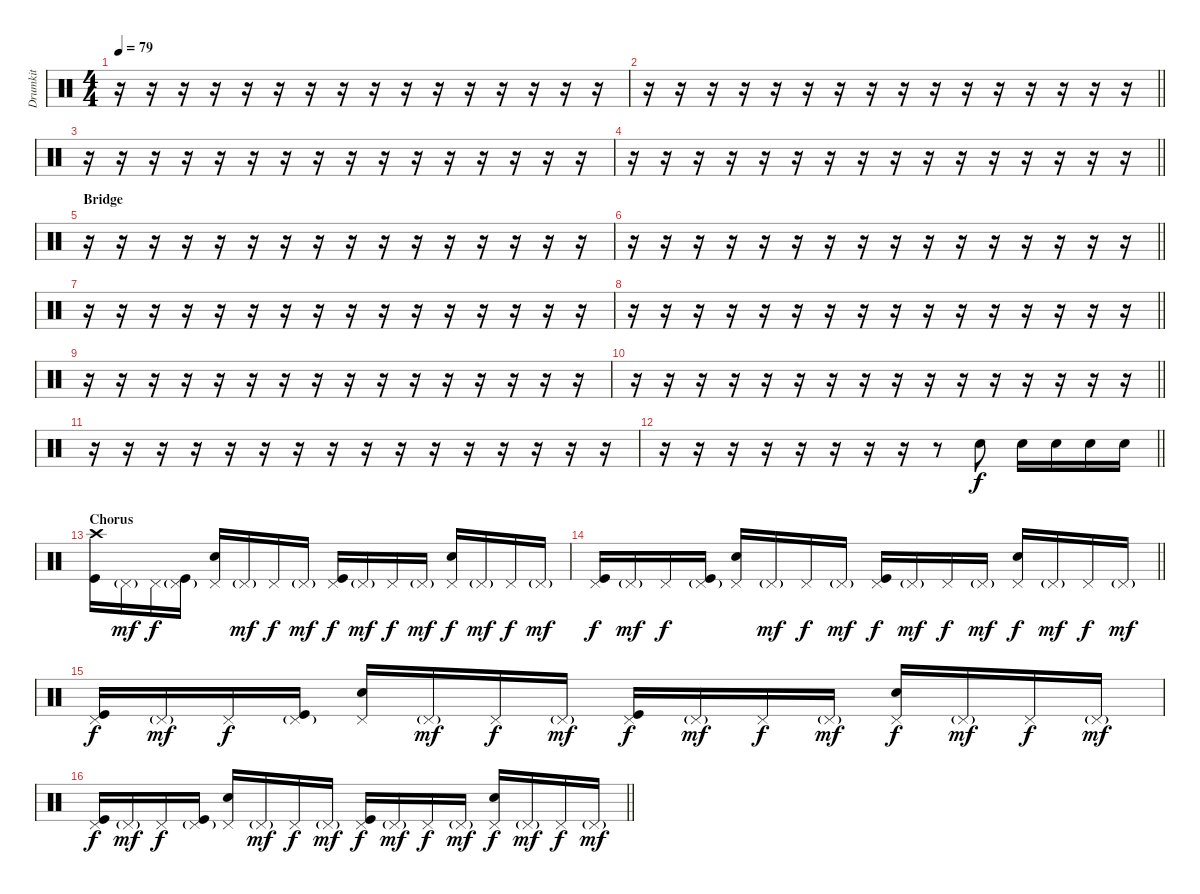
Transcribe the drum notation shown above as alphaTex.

\track ("Drumkit" "Drumkit") {instrument percussion}
\staff {score}
\articulation defaults
\ts (4 4)
\tempo 79
\clef neutral
\ks c
r.16{dy mf} r.16 r.16 r.16 r.16 r.16 r.16 r.16 r.16 r.16 r.16 r.16 r.16 r.16 r.16 r.16 |
\barLineRight lightlight
r.16 r.16 r.16 r.16 r.16 r.16 r.16 r.16 r.16 r.16 r.16 r.16 r.16 r.16 r.16 r.16 |
r.16 r.16 r.16 r.16 r.16 r.16 r.16 r.16 r.16 r.16 r.16 r.16 r.16 r.16 r.16 r.16 |
\barLineRight lightlight
r.16 r.16 r.16 r.16 r.16 r.16 r.16 r.16 r.16 r.16 r.16 r.16 r.16 r.16 r.16 r.16 |
\section ("" "Bridge")
r.16 r.16 r.16 r.16 r.16 r.16 r.16 r.16 r.16 r.16 r.16 r.16 r.16 r.16 r.16 r.16 |
\barLineRight lightlight
r.16 r.16 r.16 r.16 r.16 r.16 r.16 r.16 r.16 r.16 r.16 r.16 r.16 r.16 r.16 r.16 |
r.16 r.16 r.16 r.16 r.16 r.16 r.16 r.16 r.16 r.16 r.16 r.16 r.16 r.16 r.16 r.16 |
\barLineRight lightlight
r.16 r.16 r.16 r.16 r.16 r.16 r.16 r.16 r.16 r.16 r.16 r.16 r.16 r.16 r.16 r.16 |
r.16 r.16 r.16 r.16 r.16 r.16 r.16 r.16 r.16 r.16 r.16 r.16 r.16 r.16 r.16 r.16 |
\barLineRight lightlight
r.16 r.16 r.16 r.16 r.16 r.16 r.16 r.16 r.16 r.16 r.16 r.16 r.16 r.16 r.16 r.16 |
r.16 r.16 r.16 r.16 r.16 r.16 r.16 r.16 r.16 r.16 r.16 r.16 r.16 r.16 r.16 r.16 |
\barLineRight lightlight
r.16 r.16 r.16 r.16 r.16 r.16 r.16 r.16 r.8 "Snare (hit) 2".8{dy f} "Snare (hit) 2".16 "Snare (hit) 2".16 "Snare (hit) 2".16 "Snare (hit) 2".16 |
\section ("" "Chorus")
("Crash high (hit)" "Kick (hit)").16 "Pedal Hi-Hat (hit)"{g}.16{dy mf} "Pedal Hi-Hat (hit)".16{dy f} ("Pedal Hi-Hat (hit)"{g} "Kick (hit)").16 ("Pedal Hi-Hat (hit)" "Snare (hit) 2").16 "Pedal Hi-Hat (hit)"{g}.16{dy mf} "Pedal Hi-Hat (hit)".16{dy f} "Pedal Hi-Hat (hit)"{g}.16{dy mf} ("Pedal Hi-Hat (hit)" "Kick (hit)").16{dy f} "Pedal Hi-Hat (hit)"{g}.16{dy mf} "Pedal Hi-Hat (hit)".16{dy f} "Pedal Hi-Hat (hit)"{g}.16{dy mf} ("Pedal Hi-Hat (hit)" "Snare (hit) 2").16{dy f} "Pedal Hi-Hat (hit)"{g}.16{dy mf} "Pedal Hi-Hat (hit)".16{dy f} "Pedal Hi-Hat (hit)"{g}.16{dy mf} |
\barLineRight lightlight
("Pedal Hi-Hat (hit)" "Kick (hit)").16{dy f} "Pedal Hi-Hat (hit)"{g}.16{dy mf} "Pedal Hi-Hat (hit)".16{dy f} ("Pedal Hi-Hat (hit)"{g} "Kick (hit)").16 ("Pedal Hi-Hat (hit)" "Snare (hit) 2").16 "Pedal Hi-Hat (hit)"{g}.16{dy mf} "Pedal Hi-Hat (hit)".16{dy f} "Pedal Hi-Hat (hit)"{g}.16{dy mf} ("Pedal Hi-Hat (hit)" "Kick (hit)").16{dy f} "Pedal Hi-Hat (hit)"{g}.16{dy mf} "Pedal Hi-Hat (hit)".16{dy f} "Pedal Hi-Hat (hit)"{g}.16{dy mf} ("Pedal Hi-Hat (hit)" "Snare (hit) 2").16{dy f} "Pedal Hi-Hat (hit)"{g}.16{dy mf} "Pedal Hi-Hat (hit)".16{dy f} "Pedal Hi-Hat (hit)"{g}.16{dy mf} |
("Pedal Hi-Hat (hit)" "Kick (hit)").16{dy f} "Pedal Hi-Hat (hit)"{g}.16{dy mf} "Pedal Hi-Hat (hit)".16{dy f} ("Pedal Hi-Hat (hit)"{g} "Kick (hit)").16 ("Pedal Hi-Hat (hit)" "Snare (hit) 2").16 "Pedal Hi-Hat (hit)"{g}.16{dy mf} "Pedal Hi-Hat (hit)".16{dy f} "Pedal Hi-Hat (hit)"{g}.16{dy mf} ("Pedal Hi-Hat (hit)" "Kick (hit)").16{dy f} "Pedal Hi-Hat (hit)"{g}.16{dy mf} "Pedal Hi-Hat (hit)".16{dy f} "Pedal Hi-Hat (hit)"{g}.16{dy mf} ("Pedal Hi-Hat (hit)" "Snare (hit) 2").16{dy f} "Pedal Hi-Hat (hit)"{g}.16{dy mf} "Pedal Hi-Hat (hit)".16{dy f} "Pedal Hi-Hat (hit)"{g}.16{dy mf} |
\barLineRight lightlight
("Pedal Hi-Hat (hit)" "Kick (hit)").16{dy f} "Pedal Hi-Hat (hit)"{g}.16{dy mf} "Pedal Hi-Hat (hit)".16{dy f} ("Pedal Hi-Hat (hit)"{g} "Kick (hit)").16 ("Pedal Hi-Hat (hit)" "Snare (hit) 2").16 "Pedal Hi-Hat (hit)"{g}.16{dy mf} "Pedal Hi-Hat (hit)".16{dy f} "Pedal Hi-Hat (hit)"{g}.16{dy mf} ("Pedal Hi-Hat (hit)" "Kick (hit)").16{dy f} "Pedal Hi-Hat (hit)"{g}.16{dy mf} "Pedal Hi-Hat (hit)".16{dy f} "Pedal Hi-Hat (hit)"{g}.16{dy mf} ("Pedal Hi-Hat (hit)" "Snare (hit) 2").16{dy f} "Pedal Hi-Hat (hit)"{g}.16{dy mf} "Pedal Hi-Hat (hit)".16{dy f} "Pedal Hi-Hat (hit)"{g}.16{dy mf}
